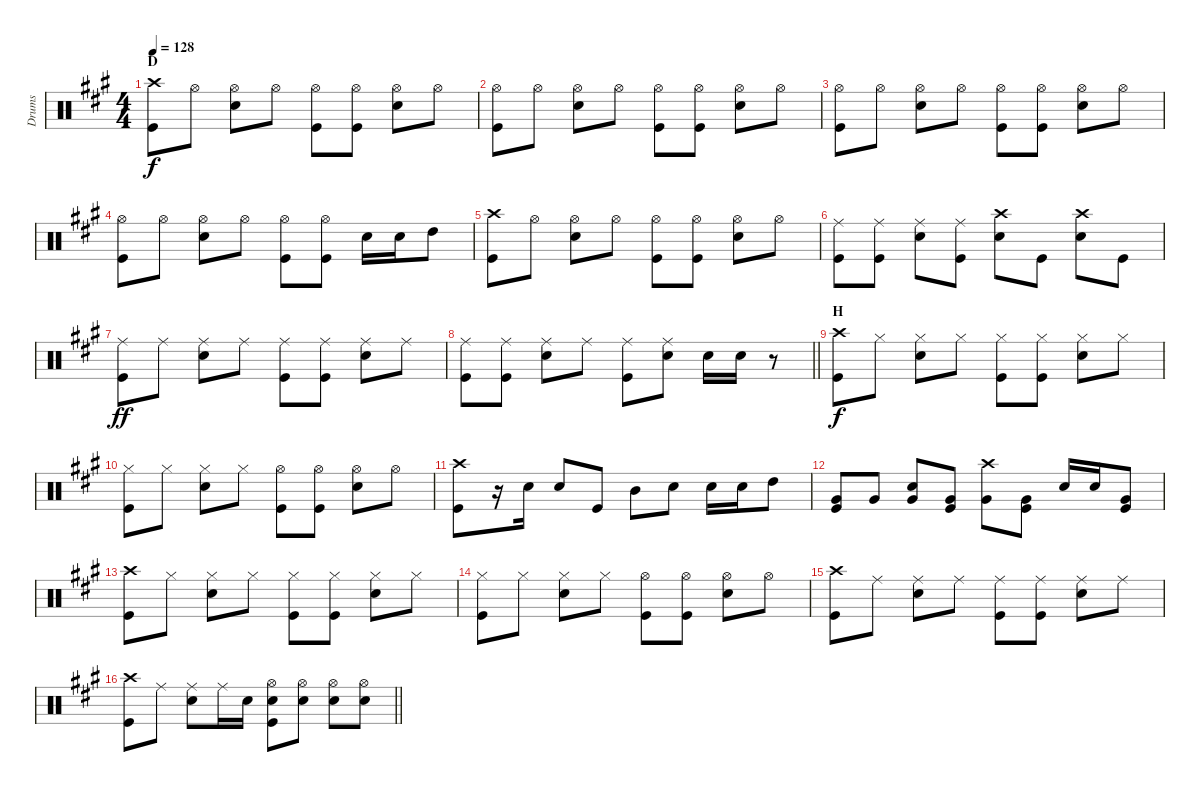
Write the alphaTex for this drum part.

\track ("Drums" "Drums") {instrument percussion}
\staff {score}
\articulation defaults
\ts (4 4)
\section ("" "D")
\tempo 128
\clef neutral
\ks a
("Crash high (hit)" "Kick (hit)").8{dy f} "Hi-Hat (open)".8 ("Hi-Hat (open)" "Snare (hit) 2").8 "Hi-Hat (open)".8 ("Hi-Hat (open)" "Kick (hit)").8 ("Hi-Hat (open)" "Kick (hit)").8 ("Hi-Hat (open)" "Snare (hit) 2").8 "Hi-Hat (open)".8 |
("Hi-Hat (open)" "Kick (hit)").8 "Hi-Hat (open)".8 ("Hi-Hat (open)" "Snare (hit) 2").8 "Hi-Hat (open)".8 ("Hi-Hat (open)" "Kick (hit)").8 ("Hi-Hat (open)" "Kick (hit)").8 ("Hi-Hat (open)" "Snare (hit) 2").8 "Hi-Hat (open)".8 |
("Hi-Hat (open)" "Kick (hit)").8 "Hi-Hat (open)".8 ("Hi-Hat (open)" "Snare (hit) 2").8 "Hi-Hat (open)".8 ("Hi-Hat (open)" "Kick (hit)").8 ("Hi-Hat (open)" "Kick (hit)").8 ("Hi-Hat (open)" "Snare (hit) 2").8 "Hi-Hat (open)".8 |
("Hi-Hat (open)" "Kick (hit)").8 "Hi-Hat (open)".8 ("Hi-Hat (open)" "Snare (hit) 2").8 "Hi-Hat (open)".8 ("Hi-Hat (open)" "Kick (hit)").8 ("Hi-Hat (open)" "Kick (hit)").8 "Snare (hit) 2".16 "Snare (hit) 2".16 "High Tom (hit)".8 |
("Crash high (hit)" "Kick (hit)").8 "Hi-Hat (open)".8 ("Hi-Hat (open)" "Snare (hit) 2").8 "Hi-Hat (open)".8 ("Hi-Hat (open)" "Kick (hit)").8 ("Hi-Hat (open)" "Kick (hit)").8 ("Hi-Hat (open)" "Snare (hit) 2").8 "Hi-Hat (open)".8 |
("Ride (middle)" "Kick (hit)").8 ("Ride (middle)" "Kick (hit)").8 ("Ride (middle)" "Snare (hit) 2").8 ("Ride (middle)" "Kick (hit)").8 ("Crash high (hit)" "Snare (hit) 2").8 "Kick (hit)".8 ("Crash high (hit)" "Snare (hit) 2").8 "Kick (hit)".8 |
("Ride (middle)" "Kick (hit)").8{dy ff} "Ride (middle)".8 ("Ride (middle)" "Snare (hit) 2").8 "Ride (middle)".8 ("Ride (middle)" "Kick (hit)").8 ("Ride (middle)" "Kick (hit)").8 ("Ride (middle)" "Snare (hit) 2").8 "Ride (middle)".8 |
\barLineRight lightlight
("Ride (middle)" "Kick (hit)").8 ("Ride (middle)" "Kick (hit)").8 ("Ride (middle)" "Snare (hit) 2").8 "Ride (middle)".8 ("Ride (middle)" "Kick (hit)").8 ("Ride (middle)" "Snare (hit) 2").8 "Snare (hit) 2".16 "Snare (hit) 2".16 r.8 |
\section ("" "H")
("Crash high (hit)" "Kick (hit)").8{dy f} "Hi-Hat (closed)".8 ("Hi-Hat (closed)" "Snare (hit) 2").8 "Hi-Hat (closed)".8 ("Hi-Hat (closed)" "Kick (hit)").8 ("Hi-Hat (closed)" "Kick (hit)").8 ("Hi-Hat (closed)" "Snare (hit) 2").8 "Hi-Hat (closed)".8 |
("Hi-Hat (closed)" "Kick (hit)").8 "Hi-Hat (closed)".8 ("Hi-Hat (closed)" "Snare (hit) 2").8 "Hi-Hat (closed)".8 ("Hi-Hat (open)" "Kick (hit)").8 ("Hi-Hat (open)" "Kick (hit)").8 ("Hi-Hat (open)" "Snare (hit) 2").8 "Hi-Hat (open)".8 |
("Crash high (hit)" "Kick (hit)").8 r.16 "Snare (hit) 2".16 "Snare (hit) 2".8 "Kick (hit)".8 "Mid Tom (hit)".8 "Snare (hit) 2".8 "Snare (hit) 2".16 "Snare (hit) 2".16 "High Tom (hit)".8 |
("Very Low Tom (hit)" "Kick (hit)").8 "Very Low Tom (hit)".8 ("Snare (hit) 2" "Very Low Tom (hit)").8 ("Very Low Tom (hit)" "Kick (hit)").8 ("Crash high (hit)" "Very Low Tom (hit)").8 ("Very Low Tom (hit)" "Kick (hit)").8 "Snare (hit) 2".16 "Snare (hit) 2".16 ("Very Low Tom (hit)" "Kick (hit)").8 |
("Crash high (hit)" "Kick (hit)").8 "Hi-Hat (closed)".8 ("Hi-Hat (closed)" "Snare (hit) 2").8 "Hi-Hat (closed)".8 ("Hi-Hat (closed)" "Kick (hit)").8 ("Hi-Hat (closed)" "Kick (hit)").8 ("Hi-Hat (closed)" "Snare (hit) 2").8 "Hi-Hat (closed)".8 |
("Hi-Hat (closed)" "Kick (hit)").8 "Hi-Hat (closed)".8 ("Hi-Hat (closed)" "Snare (hit) 2").8 "Hi-Hat (closed)".8 ("Hi-Hat (open)" "Kick (hit)").8 ("Hi-Hat (open)" "Kick (hit)").8 ("Hi-Hat (open)" "Snare (hit) 2").8 "Hi-Hat (open)".8 |
("Crash high (hit)" "Kick (hit)").8 "Ride (middle)".8 ("Ride (middle)" "Snare (hit) 2").8 "Ride (middle)".8 ("Ride (middle)" "Kick (hit)").8 ("Ride (middle)" "Kick (hit)").8 ("Ride (middle)" "Snare (hit) 2").8 "Ride (middle)".8 |
\barLineRight lightlight
("Crash high (hit)" "Kick (hit)").8 "Ride (middle)".8 ("Ride (middle)" "Snare (hit) 2").8 "Ride (middle)".16 "Snare (hit) 2".16 ("Hi-Hat (open)" "Snare (hit) 2" "Kick (hit)").8 ("Hi-Hat (open)" "Snare (hit) 2").8 ("Hi-Hat (open)" "Snare (hit) 2").8 ("Hi-Hat (open)" "Snare (hit) 2").8
